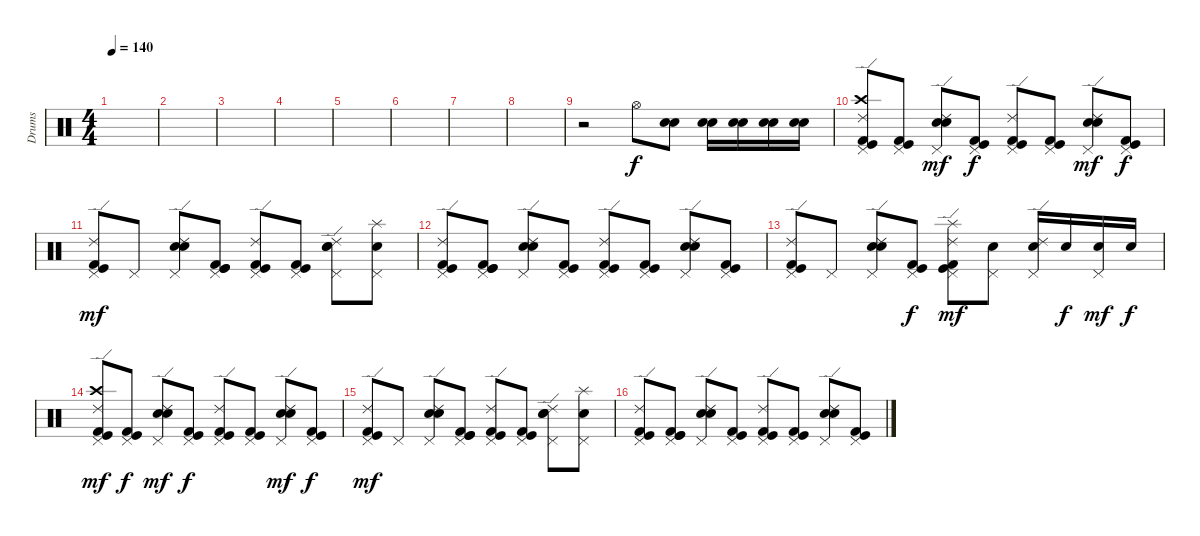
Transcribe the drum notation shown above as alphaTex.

\track ("Drums" "Drums") {instrument percussion}
\staff {score}
\articulation defaults
\ts (4 4)
\tempo 140
\clef neutral
\ks c
|
|
|
|
|
|
|
|
r.2 "Hi-Hat (open)".8 ("Electric Snare (hit)" "Snare (hit) 2").8 ("Electric Snare (hit)" "Snare (hit) 2").16 ("Electric Snare (hit)" "Snare (hit) 2").16 ("Electric Snare (hit)" "Snare (hit) 2").16 ("Electric Snare (hit)" "Snare (hit) 2").16 |
("Pedal Hi-Hat (hit)" "Crash high (hit)" "Ride (edge) 2" "Kick (hit)" "Kick (hit) 2").8 ("Pedal Hi-Hat (hit)" "Kick (hit)" "Kick (hit) 2").8{dy f} ("Pedal Hi-Hat (hit)" "Snare (hit) 2" "Snare (hit) 2" "Ride (edge) 2").8{dy mf} ("Pedal Hi-Hat (hit)" "Kick (hit)" "Kick (hit) 2").8{dy f} ("Pedal Hi-Hat (hit)" "Ride (edge) 2" "Kick (hit)" "Kick (hit) 2").8 ("Pedal Hi-Hat (hit)" "Kick (hit)" "Kick (hit) 2").8 ("Pedal Hi-Hat (hit)" "Snare (hit) 2" "Snare (hit) 2" "Ride (edge) 2").8{dy mf} ("Pedal Hi-Hat (hit)" "Kick (hit)" "Kick (hit) 2").8{dy f} |
("Pedal Hi-Hat (hit)" "Ride (edge) 2" "Kick (hit)" "Kick (hit) 2").8{dy mf} "Pedal Hi-Hat (hit)".8 ("Pedal Hi-Hat (hit)" "Ride (edge) 2" "Snare (hit) 2" "Snare (hit) 2").8 ("Pedal Hi-Hat (hit)" "Kick (hit)" "Kick (hit)" "Kick (hit) 2").8 ("Pedal Hi-Hat (hit)" "Ride (edge) 2" "Kick (hit)" "Kick (hit) 2").8 ("Pedal Hi-Hat (hit)" "Kick (hit)" "Kick (hit) 2").8 ("Pedal Hi-Hat (hit)" "Ride (edge) 2" "Snare (hit) 2" "Snare (hit) 2").8 ("Pedal Hi-Hat (hit)" "Snare (hit) 2" "Splash (hit)").8 |
("Pedal Hi-Hat (hit)" "Ride (edge) 2" "Kick (hit)" "Kick (hit) 2").8 ("Pedal Hi-Hat (hit)" "Kick (hit)" "Kick (hit)" "Kick (hit) 2").8 ("Pedal Hi-Hat (hit)" "Ride (edge) 2" "Snare (hit) 2" "Snare (hit) 2").8 ("Pedal Hi-Hat (hit)" "Kick (hit)" "Kick (hit) 2").8 ("Pedal Hi-Hat (hit)" "Ride (edge) 2" "Kick (hit)" "Kick (hit) 2").8 ("Pedal Hi-Hat (hit)" "Kick (hit)" "Kick (hit) 2").8 ("Pedal Hi-Hat (hit)" "Ride (edge) 2" "Snare (hit) 2" "Snare (hit) 2").8 ("Pedal Hi-Hat (hit)" "Kick (hit)" "Kick (hit) 2").8 |
("Ride (edge) 2" "Pedal Hi-Hat (hit)" "Kick (hit)" "Kick (hit) 2").8 "Pedal Hi-Hat (hit)".8 ("Pedal Hi-Hat (hit)" "Snare (hit) 2" "Ride (edge) 2" "Snare (hit) 2").8 ("Pedal Hi-Hat (hit)" "Kick (hit)" "Kick (hit) 2").8{dy f} ("Pedal Hi-Hat (hit)" "Splash (hit)" "Ride (edge) 2" "Kick (hit)" "Kick (hit) 2").8{dy mf} ("Pedal Hi-Hat (hit)" "Snare (hit) 2").8 ("Pedal Hi-Hat (hit)" "Snare (hit) 2" "Ride (edge) 2").16 "Snare (hit) 2".16{dy f} ("Pedal Hi-Hat (hit)" "Snare (hit) 2").16{dy mf} "Snare (hit) 2".16{dy f} |
("Pedal Hi-Hat (hit)" "Crash high (hit)" "Ride (edge) 2" "Kick (hit)" "Kick (hit) 2").8{dy mf} ("Pedal Hi-Hat (hit)" "Kick (hit)" "Kick (hit) 2").8{dy f} ("Pedal Hi-Hat (hit)" "Snare (hit) 2" "Snare (hit) 2" "Ride (edge) 2").8{dy mf} ("Pedal Hi-Hat (hit)" "Kick (hit)" "Kick (hit) 2").8{dy f} ("Pedal Hi-Hat (hit)" "Ride (edge) 2" "Kick (hit)" "Kick (hit) 2").8 ("Pedal Hi-Hat (hit)" "Kick (hit)" "Kick (hit) 2").8 ("Pedal Hi-Hat (hit)" "Snare (hit) 2" "Snare (hit) 2" "Ride (edge) 2").8{dy mf} ("Pedal Hi-Hat (hit)" "Kick (hit)" "Kick (hit) 2").8{dy f} |
("Pedal Hi-Hat (hit)" "Ride (edge) 2" "Kick (hit)" "Kick (hit) 2").8{dy mf} "Pedal Hi-Hat (hit)".8 ("Pedal Hi-Hat (hit)" "Ride (edge) 2" "Snare (hit) 2" "Snare (hit) 2").8 ("Pedal Hi-Hat (hit)" "Kick (hit)" "Kick (hit)" "Kick (hit) 2").8 ("Pedal Hi-Hat (hit)" "Ride (edge) 2" "Kick (hit)" "Kick (hit) 2").8 ("Pedal Hi-Hat (hit)" "Kick (hit)" "Kick (hit) 2").8 ("Pedal Hi-Hat (hit)" "Ride (edge) 2" "Snare (hit) 2" "Snare (hit) 2").8 ("Pedal Hi-Hat (hit)" "Snare (hit) 2" "Splash (hit)").8 |
("Pedal Hi-Hat (hit)" "Ride (edge) 2" "Kick (hit)" "Kick (hit) 2").8 ("Pedal Hi-Hat (hit)" "Kick (hit)" "Kick (hit)" "Kick (hit) 2").8 ("Pedal Hi-Hat (hit)" "Ride (edge) 2" "Snare (hit) 2" "Snare (hit) 2").8 ("Pedal Hi-Hat (hit)" "Kick (hit)" "Kick (hit) 2").8 ("Pedal Hi-Hat (hit)" "Ride (edge) 2" "Kick (hit)" "Kick (hit) 2").8 ("Pedal Hi-Hat (hit)" "Kick (hit)" "Kick (hit) 2").8 ("Pedal Hi-Hat (hit)" "Ride (edge) 2" "Snare (hit) 2" "Snare (hit) 2").8 ("Pedal Hi-Hat (hit)" "Kick (hit)" "Kick (hit) 2").8
